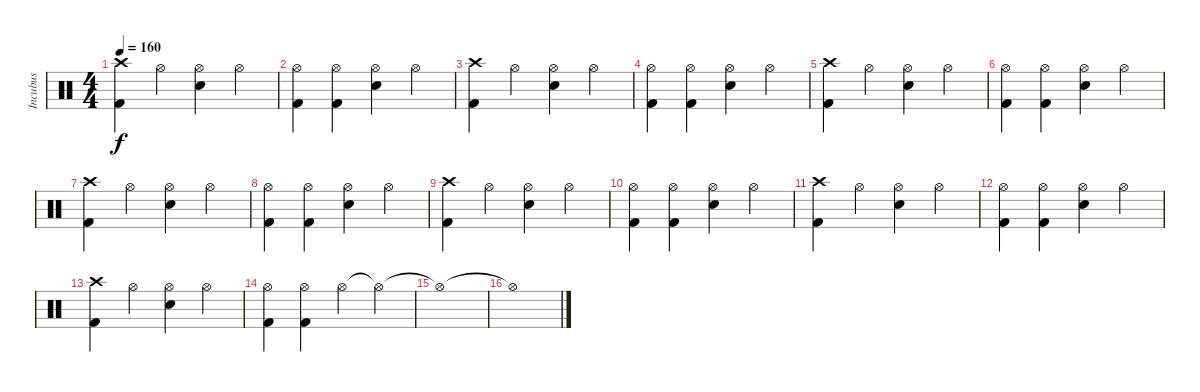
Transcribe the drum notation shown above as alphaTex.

\track ("Incubus" "Incubus") {instrument percussion}
\staff {score}
\articulation defaults
\ts (4 4)
\tempo 160
\clef neutral
\ks c
("Crash high (hit)" "Kick (hit) 2").4{dy f} "Hi-Hat (open)".4 ("Hi-Hat (open)" "Snare (hit) 2").4 "Hi-Hat (open)".4 |
("Hi-Hat (open)" "Kick (hit) 2").4 ("Hi-Hat (open)" "Kick (hit) 2").4 ("Hi-Hat (open)" "Snare (hit) 2").4 "Hi-Hat (open)".4 |
("Crash high (hit)" "Kick (hit) 2").4 "Hi-Hat (open)".4 ("Hi-Hat (open)" "Snare (hit) 2").4 "Hi-Hat (open)".4 |
("Hi-Hat (open)" "Kick (hit) 2").4 ("Hi-Hat (open)" "Kick (hit) 2").4 ("Hi-Hat (open)" "Snare (hit) 2").4 "Hi-Hat (open)".4 |
("Crash high (hit)" "Kick (hit) 2").4 "Hi-Hat (open)".4 ("Hi-Hat (open)" "Snare (hit) 2").4 "Hi-Hat (open)".4 |
("Hi-Hat (open)" "Kick (hit) 2").4 ("Hi-Hat (open)" "Kick (hit) 2").4 ("Hi-Hat (open)" "Snare (hit) 2").4 "Hi-Hat (open)".4 |
("Crash high (hit)" "Kick (hit) 2").4 "Hi-Hat (open)".4 ("Hi-Hat (open)" "Snare (hit) 2").4 "Hi-Hat (open)".4 |
("Hi-Hat (open)" "Kick (hit) 2").4 ("Hi-Hat (open)" "Kick (hit) 2").4 ("Hi-Hat (open)" "Snare (hit) 2").4 "Hi-Hat (open)".4 |
("Crash high (hit)" "Kick (hit) 2").4 "Hi-Hat (open)".4 ("Hi-Hat (open)" "Snare (hit) 2").4 "Hi-Hat (open)".4 |
("Hi-Hat (open)" "Kick (hit) 2").4 ("Hi-Hat (open)" "Kick (hit) 2").4 ("Hi-Hat (open)" "Snare (hit) 2").4 "Hi-Hat (open)".4 |
("Crash high (hit)" "Kick (hit) 2").4 "Hi-Hat (open)".4 ("Hi-Hat (open)" "Snare (hit) 2").4 "Hi-Hat (open)".4 |
("Hi-Hat (open)" "Kick (hit) 2").4 ("Hi-Hat (open)" "Kick (hit) 2").4 ("Hi-Hat (open)" "Snare (hit) 2").4 "Hi-Hat (open)".4 |
("Crash high (hit)" "Kick (hit) 2").4 "Hi-Hat (open)".4 ("Hi-Hat (open)" "Snare (hit) 2").4 "Hi-Hat (open)".4 |
("Hi-Hat (open)" "Kick (hit) 2").4 ("Hi-Hat (open)" "Kick (hit) 2").4 "Hi-Hat (open)".4 "Hi-Hat (open)"{t}.4 |
"Hi-Hat (open)"{t}.1 |
"Hi-Hat (open)"{t}.1
